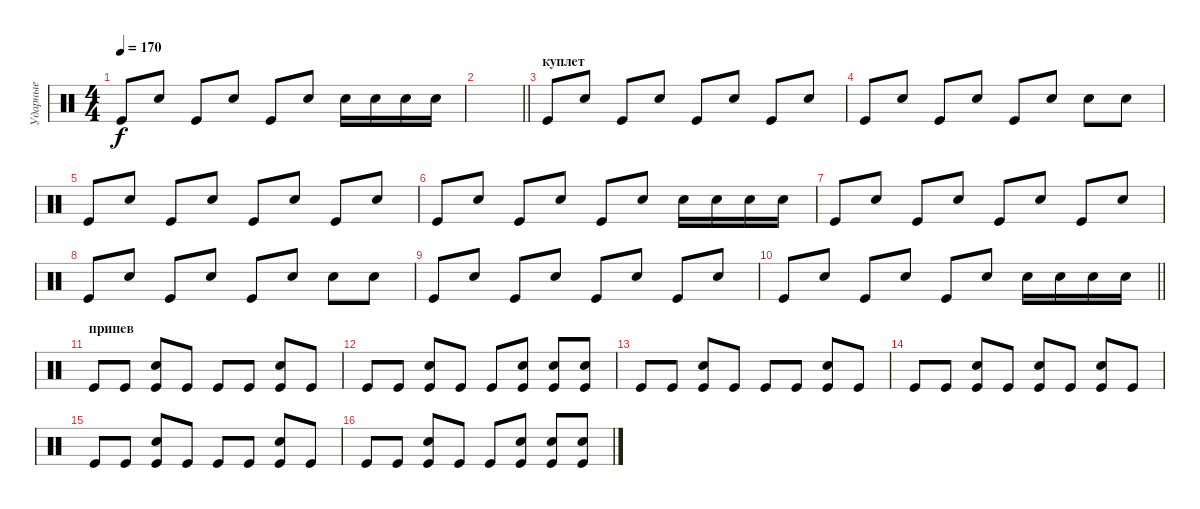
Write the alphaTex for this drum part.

\track ("Ударные" "Ударные") {instrument percussion}
\staff {score}
\articulation defaults
\ts (4 4)
\tempo 170
\clef neutral
\ks c "Kick (hit)".8{dy f} "Snare (hit) 2".8 "Kick (hit)".8 "Snare (hit) 2".8 "Kick (hit)".8 "Snare (hit) 2".8 "Snare (hit) 2".16 "Snare (hit) 2".16 "Snare (hit) 2".16 "Snare (hit) 2".16
|
\barLineRight lightlight
|
\section ("" "куплет")
"Kick (hit)".8 "Snare (hit) 2".8 "Kick (hit)".8 "Snare (hit) 2".8 "Kick (hit)".8 "Snare (hit) 2".8 "Kick (hit)".8 "Snare (hit) 2".8 |
"Kick (hit)".8 "Snare (hit) 2".8 "Kick (hit)".8 "Snare (hit) 2".8 "Kick (hit)".8 "Snare (hit) 2".8 "Snare (hit) 2".8 "Snare (hit) 2".8 |
"Kick (hit)".8 "Snare (hit) 2".8 "Kick (hit)".8 "Snare (hit) 2".8 "Kick (hit)".8 "Snare (hit) 2".8 "Kick (hit)".8 "Snare (hit) 2".8 |
"Kick (hit)".8 "Snare (hit) 2".8 "Kick (hit)".8 "Snare (hit) 2".8 "Kick (hit)".8 "Snare (hit) 2".8 "Snare (hit) 2".16 "Snare (hit) 2".16 "Snare (hit) 2".16 "Snare (hit) 2".16 |
"Kick (hit)".8 "Snare (hit) 2".8 "Kick (hit)".8 "Snare (hit) 2".8 "Kick (hit)".8 "Snare (hit) 2".8 "Kick (hit)".8 "Snare (hit) 2".8 |
"Kick (hit)".8 "Snare (hit) 2".8 "Kick (hit)".8 "Snare (hit) 2".8 "Kick (hit)".8 "Snare (hit) 2".8 "Snare (hit) 2".8 "Snare (hit) 2".8 |
"Kick (hit)".8 "Snare (hit) 2".8 "Kick (hit)".8 "Snare (hit) 2".8 "Kick (hit)".8 "Snare (hit) 2".8 "Kick (hit)".8 "Snare (hit) 2".8 |
\barLineRight lightlight "Kick (hit)".8 "Snare (hit) 2".8 "Kick (hit)".8 "Snare (hit) 2".8 "Kick (hit)".8 "Snare (hit) 2".8 "Snare (hit) 2".16 "Snare (hit) 2".16 "Snare (hit) 2".16 "Snare (hit) 2".16
|
\section ("" "припев")
"Kick (hit)".8 "Kick (hit)".8 ("Kick (hit)" "Snare (hit) 2").8 "Kick (hit)".8 "Kick (hit)".8 "Kick (hit)".8 ("Kick (hit)" "Snare (hit) 2").8 "Kick (hit)".8 |
"Kick (hit)".8 "Kick (hit)".8 ("Kick (hit)" "Snare (hit) 2").8 "Kick (hit)".8 "Kick (hit)".8 ("Kick (hit)" "Snare (hit) 2").8 ("Kick (hit)" "Snare (hit) 2").8 ("Kick (hit)" "Snare (hit) 2").8 |
"Kick (hit)".8 "Kick (hit)".8 ("Kick (hit)" "Snare (hit) 2").8 "Kick (hit)".8 "Kick (hit)".8 "Kick (hit)".8 ("Kick (hit)" "Snare (hit) 2").8 "Kick (hit)".8 |
"Kick (hit)".8 "Kick (hit)".8 ("Kick (hit)" "Snare (hit) 2").8 "Kick (hit)".8 ("Snare (hit) 2" "Kick (hit)").8 "Kick (hit)".8 ("Snare (hit) 2" "Kick (hit)").8 "Kick (hit)".8 |
"Kick (hit)".8 "Kick (hit)".8 ("Kick (hit)" "Snare (hit) 2").8 "Kick (hit)".8 "Kick (hit)".8 "Kick (hit)".8 ("Kick (hit)" "Snare (hit) 2").8 "Kick (hit)".8 |
"Kick (hit)".8 "Kick (hit)".8 ("Kick (hit)" "Snare (hit) 2").8 "Kick (hit)".8 "Kick (hit)".8 ("Kick (hit)" "Snare (hit) 2").8 ("Kick (hit)" "Snare (hit) 2").8 ("Kick (hit)" "Snare (hit) 2").8
